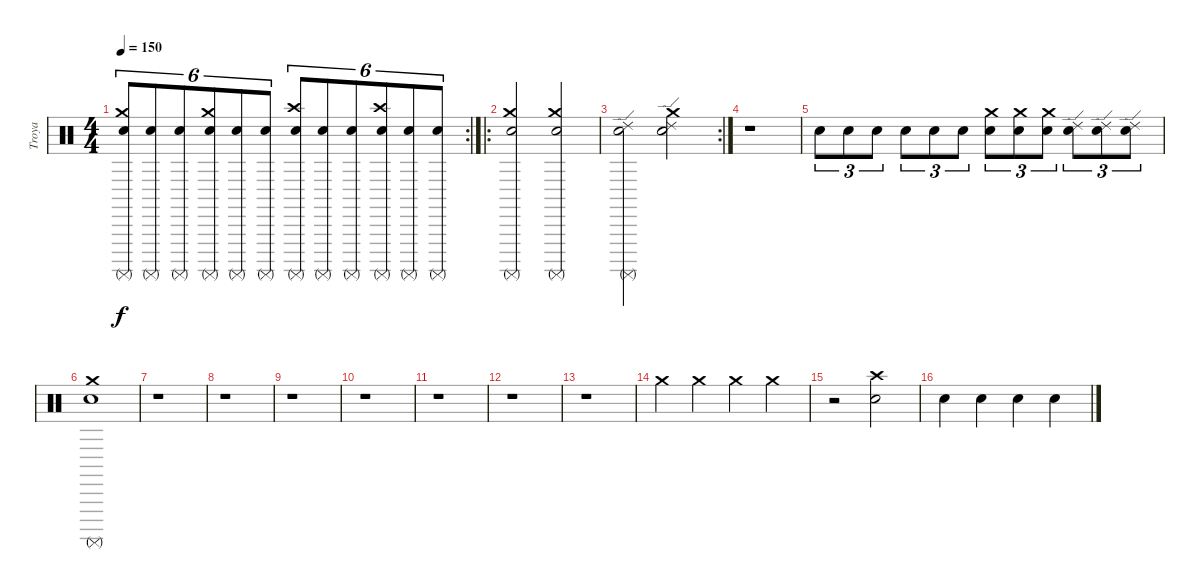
\track ("Troya" "Troya") {instrument percussion}
\staff {score}
\articulation defaults
\rc 2
\ts (4 4)
\tempo 150
\clef neutral
\ks c
("Crash medium (hit)" "Electric Snare (hit)" "Surdo (mute)").8{tu (6 4) dy f} ("Electric Snare (hit)" "Surdo (mute)").8{tu (6 4)} ("Electric Snare (hit)" "Surdo (mute)").8{tu (6 4)} ("Crash medium (hit)" "Electric Snare (hit)" "Surdo (mute)").8{tu (6 4)} ("Electric Snare (hit)" "Surdo (mute)").8{tu (6 4)} ("Electric Snare (hit)" "Surdo (mute)").8{tu (6 4)} ("Crash high (hit)" "Electric Snare (hit)" "Surdo (mute)").8{tu (6 4)} ("Electric Snare (hit)" "Surdo (mute)").8{tu (6 4)} ("Electric Snare (hit)" "Surdo (mute)").8{tu (6 4)} ("Crash high (hit)" "Electric Snare (hit)" "Surdo (mute)").8{tu (6 4)} ("Electric Snare (hit)" "Surdo (mute)").8{tu (6 4)} ("Electric Snare (hit)" "Surdo (mute)").8{tu (6 4)} |
\ro
("Crash medium (hit)" "Surdo (mute)" "Electric Snare (hit)").2 ("Crash medium (hit)" "Surdo (mute)" "Electric Snare (hit)").2 |
\rc 2
("Ride (edge) 2" "Surdo (mute)" "Electric Snare (hit)").2 ("Ride (edge) 2" "Crash medium (hit)" "Electric Snare (hit)").2 |
r.1 |
"Electric Snare (hit)".8{tu (3 2)} "Electric Snare (hit)".8{tu (3 2)} "Electric Snare (hit)".8{tu (3 2)} "Electric Snare (hit)".8{tu (3 2)} "Electric Snare (hit)".8{tu (3 2)} "Electric Snare (hit)".8{tu (3 2)} ("Crash medium (hit)" "Electric Snare (hit)").8{tu (3 2)} ("Crash medium (hit)" "Electric Snare (hit)").8{tu (3 2)} ("Crash medium (hit)" "Electric Snare (hit)").8{tu (3 2)} ("Ride (edge) 2" "Electric Snare (hit)").8{tu (3 2)} ("Ride (edge) 2" "Electric Snare (hit)").8{tu (3 2)} ("Ride (edge) 2" "Electric Snare (hit)").8{tu (3 2)} |
("Electric Snare (hit)" "Surdo (mute)" "Crash medium (hit)").1 |
r.1 |
r.1 |
r.1 |
r.1 |
r.1 |
r.1 |
r.1 |
"Crash medium (hit)".4 "Crash medium (hit)".4 "Crash medium (hit)".4 "Crash medium (hit)".4 |
r.2 ("Crash high (hit)" "Snare (hit) 2").2 |
"Snare (hit) 2".4 "Snare (hit) 2".4 "Snare (hit) 2".4 "Snare (hit) 2".4
